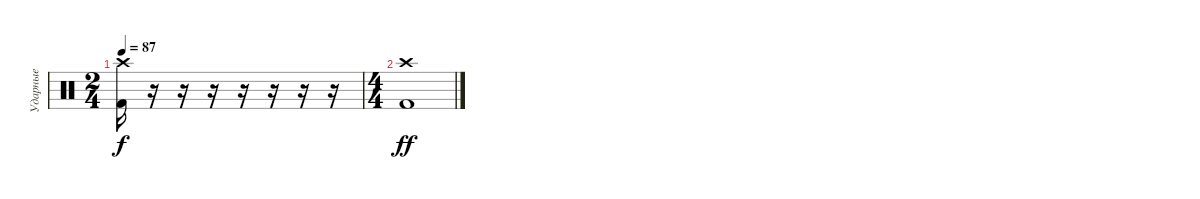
\track ("Ударные" "Ударные") {instrument percussion}
\staff {score}
\articulation defaults
\ts (2 4)
\tempo 87
\clef neutral
\ks c
("Crash high (hit)" "Kick (hit) 2").16{dy f} r.16 r.16 r.16 r.16 r.16 r.16 r.16 |
\ts (4 4)
("Crash high (hit)" "Kick (hit) 2").1{dy ff}
